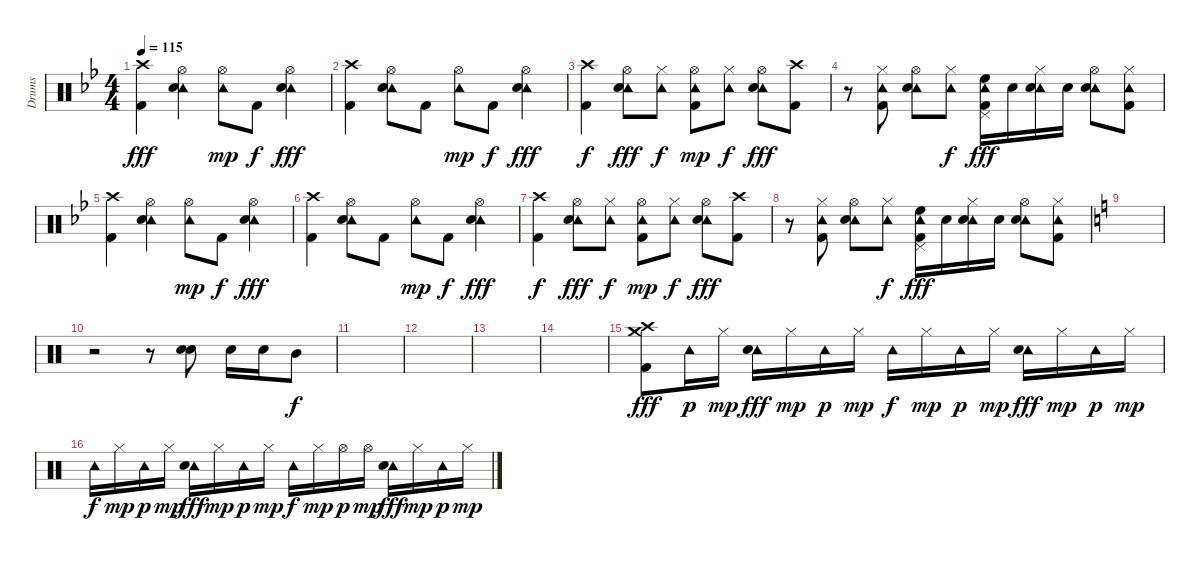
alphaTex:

\track ("Drums" "Drums") {instrument percussion}
\staff {score}
\articulation defaults
\ts (4 4)
\tempo 115
\clef neutral
\ks bb
("Crash high (hit)" "Kick (hit) 2").4{dy fff} ("Hi-Hat (open)" "Tambourine (hit)" "Electric Snare (hit)").4 ("Hi-Hat (open)" "Tambourine (hit)").8{dy mp} "Kick (hit) 2".8{dy f} ("Hi-Hat (open)" "Tambourine (hit)" "Electric Snare (hit)").4{dy fff} |
("Crash high (hit)" "Kick (hit) 2").4 ("Hi-Hat (open)" "Tambourine (hit)" "Electric Snare (hit)").8 "Kick (hit) 2".8 ("Hi-Hat (open)" "Tambourine (hit)").8{dy mp} "Kick (hit) 2".8{dy f} ("Hi-Hat (open)" "Tambourine (hit)" "Electric Snare (hit)").4{dy fff} |
("Crash high (hit)" "Kick (hit) 2").4{dy f} ("Hi-Hat (open)" "Tambourine (hit)" "Electric Snare (hit)").8{dy fff} ("Hi-Hat (closed)" "Tambourine (hit)").8{dy f} ("Hi-Hat (open)" "Tambourine (hit)" "Kick (hit) 2").8{dy mp} ("Hi-Hat (closed)" "Tambourine (hit)").8{dy f} ("Hi-Hat (open)" "Tambourine (hit)" "Electric Snare (hit)").8{dy fff} ("Crash high (hit)" "Kick (hit) 2").8 |
r.8 ("Hi-Hat (closed)" "Tambourine (hit)" "Kick (hit) 2").8 ("Hi-Hat (open)" "Tambourine (hit)" "Electric Snare (hit)").8 ("Hi-Hat (closed)" "Tambourine (hit)").8{dy f} ("Pedal Hi-Hat (hit)" "Tambourine (hit)" "High Floor Tom (hit)" "Kick (hit) 2").16{dy fff} "Electric Snare (hit)".16 ("Hi-Hat (closed)" "Tambourine (hit)" "Electric Snare (hit)").16 "Electric Snare (hit)".16 ("Hi-Hat (open)" "Tambourine (hit)" "Electric Snare (hit)").8 ("Hi-Hat (closed)" "Tambourine (hit)" "Kick (hit) 2").8 |
("Crash high (hit)" "Kick (hit) 2").4 ("Hi-Hat (open)" "Tambourine (hit)" "Electric Snare (hit)").4 ("Hi-Hat (open)" "Tambourine (hit)").8{dy mp} "Kick (hit) 2".8{dy f} ("Hi-Hat (open)" "Tambourine (hit)" "Electric Snare (hit)").4{dy fff} |
("Crash high (hit)" "Kick (hit) 2").4 ("Hi-Hat (open)" "Tambourine (hit)" "Electric Snare (hit)").8 "Kick (hit) 2".8 ("Hi-Hat (open)" "Tambourine (hit)").8{dy mp} "Kick (hit) 2".8{dy f} ("Hi-Hat (open)" "Tambourine (hit)" "Electric Snare (hit)").4{dy fff} |
("Crash high (hit)" "Kick (hit) 2").4{dy f} ("Hi-Hat (open)" "Tambourine (hit)" "Electric Snare (hit)").8{dy fff} ("Hi-Hat (closed)" "Tambourine (hit)").8{dy f} ("Hi-Hat (open)" "Tambourine (hit)" "Kick (hit) 2").8{dy mp} ("Hi-Hat (closed)" "Tambourine (hit)").8{dy f} ("Hi-Hat (open)" "Tambourine (hit)" "Electric Snare (hit)").8{dy fff} ("Crash high (hit)" "Kick (hit) 2").8 |
r.8 ("Hi-Hat (closed)" "Tambourine (hit)" "Kick (hit) 2").8 ("Hi-Hat (open)" "Tambourine (hit)" "Electric Snare (hit)").8 ("Hi-Hat (closed)" "Tambourine (hit)").8{dy f} ("Pedal Hi-Hat (hit)" "Tambourine (hit)" "High Floor Tom (hit)" "Kick (hit) 2").16{dy fff} "Electric Snare (hit)".16 ("Hi-Hat (closed)" "Tambourine (hit)" "Electric Snare (hit)").16 "Electric Snare (hit)".16 ("Hi-Hat (open)" "Tambourine (hit)" "Electric Snare (hit)").8 ("Hi-Hat (closed)" "Tambourine (hit)" "Kick (hit) 2").8 |
\ks c
|
r.2 r.8 ("Electric Snare (hit)" "Electric Snare (hit)").8 "Electric Snare (hit)".16 "Electric Snare (hit)".16 "Mid Tom (hit)".8{dy f} |
|
|
|
|
("Crash medium (hit)" "Crash high (hit)" "Kick (hit) 2").8{dy fff} "Tambourine (hit)".16{dy p} "Hi-Hat (closed)".16{dy mp} ("Tambourine (hit)" "Electric Snare (hit)").16{dy fff} "Hi-Hat (closed)".16{dy mp} "Tambourine (hit)".16{dy p} "Hi-Hat (closed)".16{dy mp} "Tambourine (hit)".16{dy f} "Hi-Hat (closed)".16{dy mp} "Tambourine (hit)".16{dy p} "Hi-Hat (closed)".16{dy mp} ("Tambourine (hit)" "Electric Snare (hit)").16{dy fff} "Hi-Hat (closed)".16{dy mp} "Tambourine (hit)".16{dy p} "Hi-Hat (closed)".16{dy mp} |
"Tambourine (hit)".16{dy f} "Hi-Hat (closed)".16{dy mp} "Tambourine (hit)".16{dy p} "Hi-Hat (closed)".16{dy mp} ("Tambourine (hit)" "Electric Snare (hit)").16{dy fff} "Hi-Hat (closed)".16{dy mp} "Tambourine (hit)".16{dy p} "Hi-Hat (closed)".16{dy mp} "Tambourine (hit)".16{dy f} "Hi-Hat (closed)".16{dy mp} "Hi-Hat (open)".16{dy p} "Hi-Hat (open)".16{dy mp} ("Tambourine (hit)" "Electric Snare (hit)").16{dy fff} "Hi-Hat (closed)".16{dy mp} "Tambourine (hit)".16{dy p} "Hi-Hat (closed)".16{dy mp}
